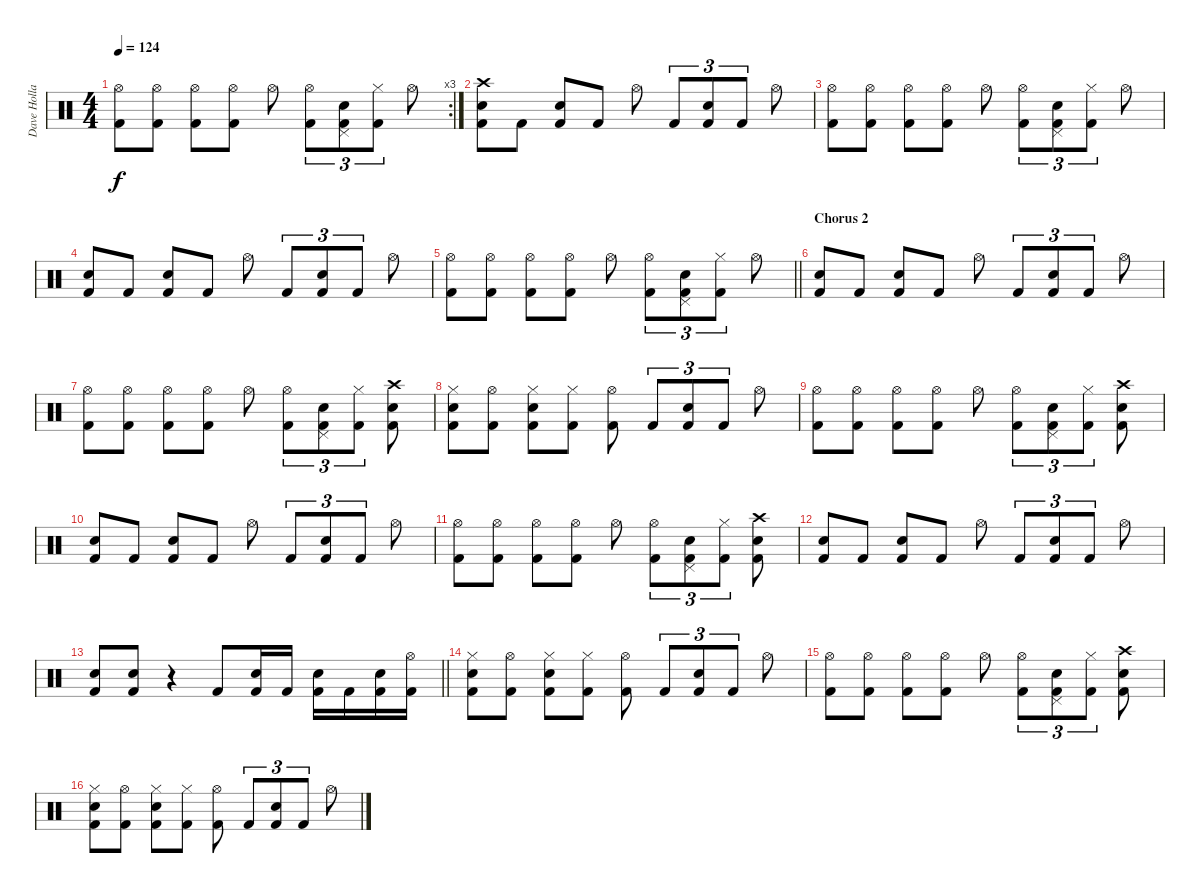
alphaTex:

\track ("Dave Holland" "Dave Holla") {instrument percussion}
\staff {score}
\articulation defaults
\rc 3
\ts (4 4)
\tempo 124
\clef neutral
\ks c
("Hi-Hat (open)" "Kick (hit) 2").8{dy f} ("Hi-Hat (open)" "Kick (hit) 2").8 ("Hi-Hat (open)" "Kick (hit) 2").8 ("Hi-Hat (open)" "Kick (hit) 2").8 "Hi-Hat (open)".8 ("Hi-Hat (open)" "Kick (hit) 2").8{tu (3 2)} ("Pedal Hi-Hat (hit)" "Snare (hit) 2" "Kick (hit) 2").8{tu (3 2)} ("Hi-Hat (closed)" "Kick (hit) 2").8{tu (3 2)} "Hi-Hat (open)".8 |
("Crash high (hit)" "Snare (hit) 2" "Kick (hit) 2").8 "Kick (hit) 2".8 ("Snare (hit) 2" "Kick (hit) 2").8 "Kick (hit) 2".8 "Hi-Hat (open)".8 "Kick (hit) 2".8{tu (3 2)} ("Snare (hit) 2" "Kick (hit) 2").8{tu (3 2)} "Kick (hit) 2".8{tu (3 2)} "Hi-Hat (open)".8 |
("Hi-Hat (open)" "Kick (hit) 2").8 ("Hi-Hat (open)" "Kick (hit) 2").8 ("Hi-Hat (open)" "Kick (hit) 2").8 ("Hi-Hat (open)" "Kick (hit) 2").8 "Hi-Hat (open)".8 ("Hi-Hat (open)" "Kick (hit) 2").8{tu (3 2)} ("Pedal Hi-Hat (hit)" "Snare (hit) 2" "Kick (hit) 2").8{tu (3 2)} ("Hi-Hat (closed)" "Kick (hit) 2").8{tu (3 2)} "Hi-Hat (open)".8 |
("Snare (hit) 2" "Kick (hit) 2").8 "Kick (hit) 2".8 ("Snare (hit) 2" "Kick (hit) 2").8 "Kick (hit) 2".8 "Hi-Hat (open)".8 "Kick (hit) 2".8{tu (3 2)} ("Snare (hit) 2" "Kick (hit) 2").8{tu (3 2)} "Kick (hit) 2".8{tu (3 2)} "Hi-Hat (open)".8 |
\barLineRight lightlight
("Hi-Hat (open)" "Kick (hit) 2").8 ("Hi-Hat (open)" "Kick (hit) 2").8 ("Hi-Hat (open)" "Kick (hit) 2").8 ("Hi-Hat (open)" "Kick (hit) 2").8 "Hi-Hat (open)".8 ("Hi-Hat (open)" "Kick (hit) 2").8{tu (3 2)} ("Pedal Hi-Hat (hit)" "Snare (hit) 2" "Kick (hit) 2").8{tu (3 2)} ("Hi-Hat (closed)" "Kick (hit) 2").8{tu (3 2)} "Hi-Hat (open)".8 |
\section ("" "Chorus 2")
("Snare (hit) 2" "Kick (hit) 2").8 "Kick (hit) 2".8 ("Snare (hit) 2" "Kick (hit) 2").8 "Kick (hit) 2".8 "Hi-Hat (open)".8 "Kick (hit) 2".8{tu (3 2)} ("Snare (hit) 2" "Kick (hit) 2").8{tu (3 2)} "Kick (hit) 2".8{tu (3 2)} "Hi-Hat (open)".8 |
("Hi-Hat (open)" "Kick (hit) 2").8 ("Hi-Hat (open)" "Kick (hit) 2").8 ("Hi-Hat (open)" "Kick (hit) 2").8 ("Hi-Hat (open)" "Kick (hit) 2").8 "Hi-Hat (open)".8 ("Hi-Hat (open)" "Kick (hit) 2").8{tu (3 2)} ("Pedal Hi-Hat (hit)" "Snare (hit) 2" "Kick (hit) 2").8{tu (3 2)} ("Hi-Hat (closed)" "Kick (hit) 2").8{tu (3 2)} ("Crash high (hit)" "Snare (hit) 2" "Kick (hit) 2").8 |
("Hi-Hat (closed)" "Snare (hit) 2" "Kick (hit) 2").8 ("Hi-Hat (open)" "Kick (hit) 2").8 ("Hi-Hat (closed)" "Snare (hit) 2" "Kick (hit) 2").8 ("Hi-Hat (closed)" "Kick (hit) 2").8 ("Hi-Hat (open)" "Kick (hit) 2").8 "Kick (hit) 2".8{tu (3 2)} ("Snare (hit) 2" "Kick (hit) 2").8{tu (3 2)} "Kick (hit) 2".8{tu (3 2)} "Hi-Hat (open)".8 |
("Hi-Hat (open)" "Kick (hit) 2").8 ("Hi-Hat (open)" "Kick (hit) 2").8 ("Hi-Hat (open)" "Kick (hit) 2").8 ("Hi-Hat (open)" "Kick (hit) 2").8 "Hi-Hat (open)".8 ("Hi-Hat (open)" "Kick (hit) 2").8{tu (3 2)} ("Pedal Hi-Hat (hit)" "Snare (hit) 2" "Kick (hit) 2").8{tu (3 2)} ("Hi-Hat (closed)" "Kick (hit) 2").8{tu (3 2)} ("Crash high (hit)" "Snare (hit) 2" "Kick (hit) 2").8 |
("Snare (hit) 2" "Kick (hit) 2").8 "Kick (hit) 2".8 ("Snare (hit) 2" "Kick (hit) 2").8 "Kick (hit) 2".8 "Hi-Hat (open)".8 "Kick (hit) 2".8{tu (3 2)} ("Snare (hit) 2" "Kick (hit) 2").8{tu (3 2)} "Kick (hit) 2".8{tu (3 2)} "Hi-Hat (open)".8 |
("Hi-Hat (open)" "Kick (hit) 2").8 ("Hi-Hat (open)" "Kick (hit) 2").8 ("Hi-Hat (open)" "Kick (hit) 2").8 ("Hi-Hat (open)" "Kick (hit) 2").8 "Hi-Hat (open)".8 ("Hi-Hat (open)" "Kick (hit) 2").8{tu (3 2)} ("Pedal Hi-Hat (hit)" "Snare (hit) 2" "Kick (hit) 2").8{tu (3 2)} ("Hi-Hat (closed)" "Kick (hit) 2").8{tu (3 2)} ("Crash high (hit)" "Snare (hit) 2" "Kick (hit) 2").8 |
("Snare (hit) 2" "Kick (hit) 2").8 "Kick (hit) 2".8 ("Snare (hit) 2" "Kick (hit) 2").8 "Kick (hit) 2".8 "Hi-Hat (open)".8 "Kick (hit) 2".8{tu (3 2)} ("Snare (hit) 2" "Kick (hit) 2").8{tu (3 2)} "Kick (hit) 2".8{tu (3 2)} "Hi-Hat (open)".8 |
\barLineRight lightlight
("Snare (hit) 2" "Kick (hit) 2").8 ("Snare (hit) 2" "Kick (hit) 2").8 r.4 "Kick (hit) 2".8 ("Snare (hit) 2" "Kick (hit) 2").16 "Kick (hit) 2".16 ("Snare (hit) 2" "Kick (hit) 2").16 "Kick (hit) 2".16 ("Snare (hit) 2" "Kick (hit) 2").16 ("Hi-Hat (open)" "Kick (hit) 2").16 |
("Hi-Hat (closed)" "Snare (hit) 2" "Kick (hit) 2").8 ("Hi-Hat (open)" "Kick (hit) 2").8 ("Hi-Hat (closed)" "Snare (hit) 2" "Kick (hit) 2").8 ("Hi-Hat (closed)" "Kick (hit) 2").8 ("Hi-Hat (open)" "Kick (hit) 2").8 "Kick (hit) 2".8{tu (3 2)} ("Snare (hit) 2" "Kick (hit) 2").8{tu (3 2)} "Kick (hit) 2".8{tu (3 2)} "Hi-Hat (open)".8 |
("Hi-Hat (open)" "Kick (hit) 2").8 ("Hi-Hat (open)" "Kick (hit) 2").8 ("Hi-Hat (open)" "Kick (hit) 2").8 ("Hi-Hat (open)" "Kick (hit) 2").8 "Hi-Hat (open)".8 ("Hi-Hat (open)" "Kick (hit) 2").8{tu (3 2)} ("Pedal Hi-Hat (hit)" "Snare (hit) 2" "Kick (hit) 2").8{tu (3 2)} ("Hi-Hat (closed)" "Kick (hit) 2").8{tu (3 2)} ("Crash high (hit)" "Snare (hit) 2" "Kick (hit) 2").8 |
("Hi-Hat (closed)" "Snare (hit) 2" "Kick (hit) 2").8 ("Hi-Hat (open)" "Kick (hit) 2").8 ("Hi-Hat (closed)" "Snare (hit) 2" "Kick (hit) 2").8 ("Hi-Hat (closed)" "Kick (hit) 2").8 ("Hi-Hat (open)" "Kick (hit) 2").8 "Kick (hit) 2".8{tu (3 2)} ("Snare (hit) 2" "Kick (hit) 2").8{tu (3 2)} "Kick (hit) 2".8{tu (3 2)} "Hi-Hat (open)".8
